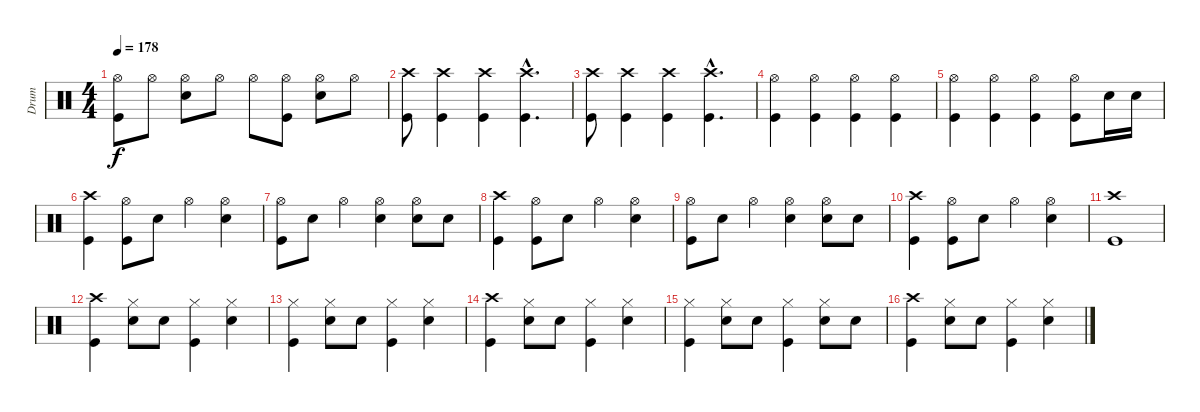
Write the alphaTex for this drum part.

\track ("Drum" "Drum") {instrument percussion}
\staff {score}
\articulation defaults
\ts (4 4)
\tempo 178
\clef neutral
\ks c
("Hi-Hat (open)" "Kick (hit)").8{dy f} "Hi-Hat (open)".8 ("Hi-Hat (open)" "Snare (hit) 2").8 "Hi-Hat (open)".8 "Hi-Hat (open)".8 ("Hi-Hat (open)" "Kick (hit)").8 ("Hi-Hat (open)" "Snare (hit) 2").8 "Hi-Hat (open)".8 |
("Crash high (hit)" "Kick (hit)").8 ("Crash high (hit)" "Kick (hit)").4 ("Crash high (hit)" "Kick (hit)").4 ("Crash high (hit)"{hac} "Kick (hit)"{hac}).4{d} |
("Crash high (hit)" "Kick (hit)").8 ("Crash high (hit)" "Kick (hit)").4 ("Crash high (hit)" "Kick (hit)").4 ("Crash high (hit)"{hac} "Kick (hit)"{hac}).4{d} |
("Hi-Hat (open)" "Kick (hit)").4 ("Hi-Hat (open)" "Kick (hit)").4 ("Hi-Hat (open)" "Kick (hit)").4 ("Hi-Hat (open)" "Kick (hit)").4 |
("Hi-Hat (open)" "Kick (hit)").4 ("Hi-Hat (open)" "Kick (hit)").4 ("Hi-Hat (open)" "Kick (hit)").4 ("Hi-Hat (open)" "Kick (hit)").8 "Snare (hit) 2".16 "Snare (hit) 2".16 |
("Crash high (hit)" "Kick (hit)").4 ("Hi-Hat (open)" "Kick (hit)").8 "Snare (hit) 2".8 "Hi-Hat (open)".4 ("Hi-Hat (open)" "Snare (hit) 2").4 |
("Hi-Hat (open)" "Kick (hit)").8 "Snare (hit) 2".8 "Hi-Hat (open)".4 ("Hi-Hat (open)" "Snare (hit) 2").4 ("Hi-Hat (open)" "Snare (hit) 2").8 "Snare (hit) 2".8 |
("Crash high (hit)" "Kick (hit)").4 ("Hi-Hat (open)" "Kick (hit)").8 "Snare (hit) 2".8 "Hi-Hat (open)".4 ("Hi-Hat (open)" "Snare (hit) 2").4 |
("Hi-Hat (open)" "Kick (hit)").8 "Snare (hit) 2".8 "Hi-Hat (open)".4 ("Hi-Hat (open)" "Snare (hit) 2").4 ("Hi-Hat (open)" "Snare (hit) 2").8 "Snare (hit) 2".8 |
("Crash high (hit)" "Kick (hit)").4 ("Hi-Hat (open)" "Kick (hit)").8 "Snare (hit) 2".8 "Hi-Hat (open)".4 ("Hi-Hat (open)" "Snare (hit) 2").4 |
("Crash high (hit)" "Kick (hit)").1 |
("Crash high (hit)" "Kick (hit)").4 ("Hi-Hat (closed)" "Snare (hit) 2").8 "Snare (hit) 2".8 ("Hi-Hat (closed)" "Kick (hit)").4 ("Hi-Hat (closed)" "Snare (hit) 2").4 |
("Hi-Hat (closed)" "Kick (hit)").4 ("Hi-Hat (closed)" "Snare (hit) 2").8 "Snare (hit) 2".8 ("Hi-Hat (closed)" "Kick (hit)").4 ("Hi-Hat (closed)" "Snare (hit) 2").4 |
("Crash high (hit)" "Kick (hit)").4 ("Hi-Hat (closed)" "Snare (hit) 2").8 "Snare (hit) 2".8 ("Hi-Hat (closed)" "Kick (hit)").4 ("Hi-Hat (closed)" "Snare (hit) 2").4 |
("Hi-Hat (closed)" "Kick (hit)").4 ("Hi-Hat (closed)" "Snare (hit) 2").8 "Snare (hit) 2".8 ("Hi-Hat (closed)" "Kick (hit)").4 ("Hi-Hat (closed)" "Snare (hit) 2").8 "Snare (hit) 2".8 |
("Crash high (hit)" "Kick (hit)").4 ("Hi-Hat (closed)" "Snare (hit) 2").8 "Snare (hit) 2".8 ("Hi-Hat (closed)" "Kick (hit)").4 ("Hi-Hat (closed)" "Snare (hit) 2").4
